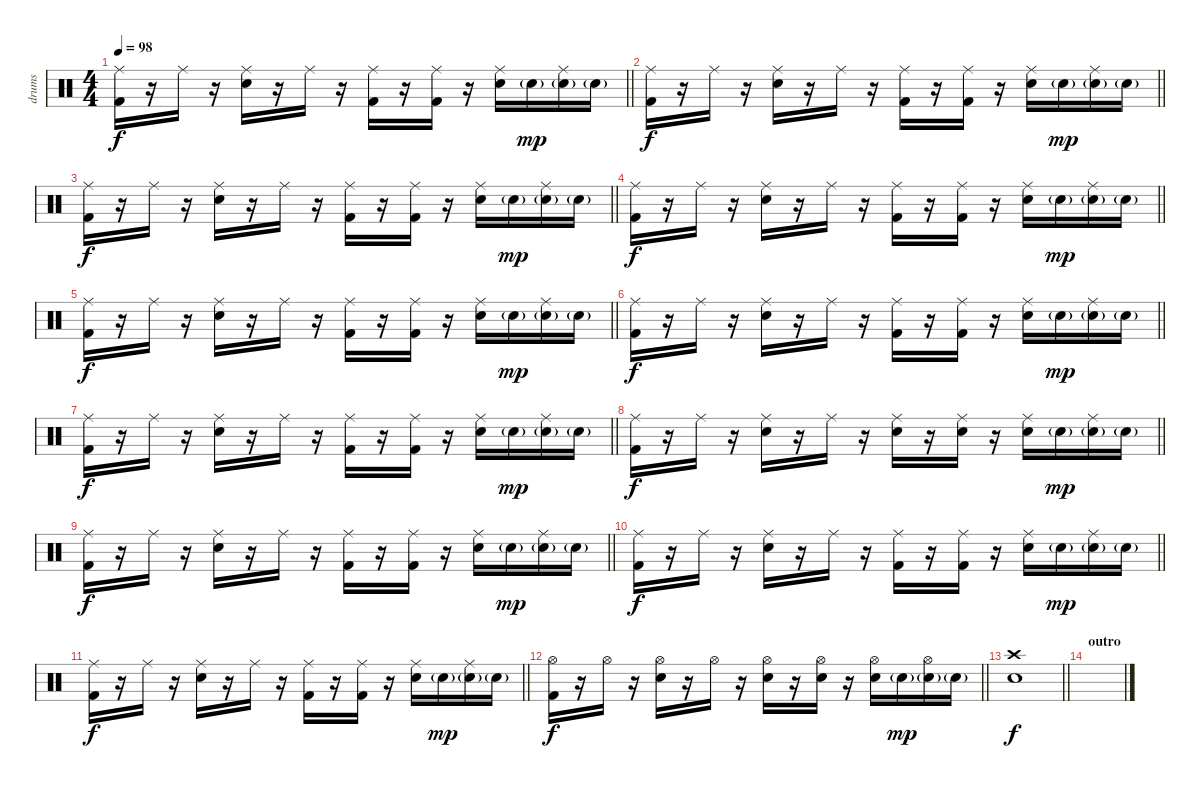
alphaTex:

\track ("drums" "drums") {instrument percussion}
\staff {score}
\articulation defaults
\ts (4 4)
\tempo 98
\clef neutral
\barLineRight lightlight
\ks c
("Kick (hit) 2" "Ride (middle)").16{dy f} r.16 "Ride (middle)".16 r.16 ("Electric Snare (hit)" "Ride (middle)").16 r.16 "Ride (middle)".16 r.16 ("Kick (hit) 2" "Ride (middle)").16 r.16 ("Kick (hit) 2" "Ride (middle)").16 r.16 ("Electric Snare (hit)" "Ride (middle)").16 "Electric Snare (hit)"{g}.16{dy mp} ("Electric Snare (hit)"{g} "Ride (middle)").16 "Electric Snare (hit)"{g}.16 |
\barLineRight lightlight
("Kick (hit) 2" "Ride (middle)").16{dy f} r.16 "Ride (middle)".16 r.16 ("Electric Snare (hit)" "Ride (middle)").16 r.16 "Ride (middle)".16 r.16 ("Kick (hit) 2" "Ride (middle)").16 r.16 ("Kick (hit) 2" "Ride (middle)").16 r.16 ("Electric Snare (hit)" "Ride (middle)").16 "Electric Snare (hit)"{g}.16{dy mp} ("Electric Snare (hit)"{g} "Ride (middle)").16 "Electric Snare (hit)"{g}.16 |
\barLineRight lightlight
("Kick (hit) 2" "Ride (middle)").16{dy f} r.16 "Ride (middle)".16 r.16 ("Electric Snare (hit)" "Ride (middle)").16 r.16 "Ride (middle)".16 r.16 ("Kick (hit) 2" "Ride (middle)").16 r.16 ("Kick (hit) 2" "Ride (middle)").16 r.16 ("Electric Snare (hit)" "Ride (middle)").16 "Electric Snare (hit)"{g}.16{dy mp} ("Electric Snare (hit)"{g} "Ride (middle)").16 "Electric Snare (hit)"{g}.16 |
\barLineRight lightlight
("Kick (hit) 2" "Ride (middle)").16{dy f} r.16 "Ride (middle)".16 r.16 ("Electric Snare (hit)" "Ride (middle)").16 r.16 "Ride (middle)".16 r.16 ("Kick (hit) 2" "Ride (middle)").16 r.16 ("Kick (hit) 2" "Ride (middle)").16 r.16 ("Electric Snare (hit)" "Ride (middle)").16 "Electric Snare (hit)"{g}.16{dy mp} ("Electric Snare (hit)"{g} "Ride (middle)").16 "Electric Snare (hit)"{g}.16 |
\barLineRight lightlight
("Kick (hit) 2" "Ride (middle)").16{dy f} r.16 "Ride (middle)".16 r.16 ("Electric Snare (hit)" "Ride (middle)").16 r.16 "Ride (middle)".16 r.16 ("Kick (hit) 2" "Ride (middle)").16 r.16 ("Kick (hit) 2" "Ride (middle)").16 r.16 ("Electric Snare (hit)" "Ride (middle)").16 "Electric Snare (hit)"{g}.16{dy mp} ("Electric Snare (hit)"{g} "Ride (middle)").16 "Electric Snare (hit)"{g}.16 |
\barLineRight lightlight
("Kick (hit) 2" "Ride (middle)").16{dy f} r.16 "Ride (middle)".16 r.16 ("Electric Snare (hit)" "Ride (middle)").16 r.16 "Ride (middle)".16 r.16 ("Kick (hit) 2" "Ride (middle)").16 r.16 ("Kick (hit) 2" "Ride (middle)").16 r.16 ("Electric Snare (hit)" "Ride (middle)").16 "Electric Snare (hit)"{g}.16{dy mp} ("Electric Snare (hit)"{g} "Ride (middle)").16 "Electric Snare (hit)"{g}.16 |
\barLineRight lightlight
("Kick (hit) 2" "Ride (middle)").16{dy f} r.16 "Ride (middle)".16 r.16 ("Electric Snare (hit)" "Ride (middle)").16 r.16 "Ride (middle)".16 r.16 ("Kick (hit) 2" "Ride (middle)").16 r.16 ("Kick (hit) 2" "Ride (middle)").16 r.16 ("Electric Snare (hit)" "Ride (middle)").16 "Electric Snare (hit)"{g}.16{dy mp} ("Electric Snare (hit)"{g} "Ride (middle)").16 "Electric Snare (hit)"{g}.16 |
\barLineRight lightlight
("Kick (hit) 2" "Ride (middle)").16{dy f} r.16 "Ride (middle)".16 r.16 ("Electric Snare (hit)" "Ride (middle)").16 r.16 "Ride (middle)".16 r.16 ("Electric Snare (hit)" "Ride (middle)").16 r.16 ("Electric Snare (hit)" "Ride (middle)").16 r.16 ("Electric Snare (hit)" "Ride (middle)").16 "Electric Snare (hit)"{g}.16{dy mp} ("Electric Snare (hit)"{g} "Ride (middle)").16 "Electric Snare (hit)"{g}.16 |
\barLineRight lightlight
("Kick (hit) 2" "Ride (middle)").16{dy f} r.16 "Ride (middle)".16 r.16 ("Electric Snare (hit)" "Ride (middle)").16 r.16 "Ride (middle)".16 r.16 ("Kick (hit) 2" "Ride (middle)").16 r.16 ("Kick (hit) 2" "Ride (middle)").16 r.16 ("Electric Snare (hit)" "Ride (middle)").16 "Electric Snare (hit)"{g}.16{dy mp} ("Electric Snare (hit)"{g} "Ride (middle)").16 "Electric Snare (hit)"{g}.16 |
\barLineRight lightlight
("Kick (hit) 2" "Ride (middle)").16{dy f} r.16 "Ride (middle)".16 r.16 ("Electric Snare (hit)" "Ride (middle)").16 r.16 "Ride (middle)".16 r.16 ("Kick (hit) 2" "Ride (middle)").16 r.16 ("Kick (hit) 2" "Ride (middle)").16 r.16 ("Electric Snare (hit)" "Ride (middle)").16 "Electric Snare (hit)"{g}.16{dy mp} ("Electric Snare (hit)"{g} "Ride (middle)").16 "Electric Snare (hit)"{g}.16 |
\barLineRight lightlight
("Kick (hit) 2" "Ride (middle)").16{dy f} r.16 "Ride (middle)".16 r.16 ("Electric Snare (hit)" "Ride (middle)").16 r.16 "Ride (middle)".16 r.16 ("Kick (hit) 2" "Ride (middle)").16 r.16 ("Kick (hit) 2" "Ride (middle)").16 r.16 ("Electric Snare (hit)" "Ride (middle)").16 "Electric Snare (hit)"{g}.16{dy mp} ("Electric Snare (hit)"{g} "Ride (middle)").16 "Electric Snare (hit)"{g}.16 |
\barLineRight lightlight
("Kick (hit) 2" "Hi-Hat (open)").16{dy f} r.16 "Hi-Hat (open)".16 r.16 ("Electric Snare (hit)" "Hi-Hat (open)").16 r.16 "Hi-Hat (open)".16 r.16 ("Electric Snare (hit)" "Hi-Hat (open)").16 r.16 ("Electric Snare (hit)" "Hi-Hat (open)").16 r.16 ("Electric Snare (hit)" "Hi-Hat (open)").16 "Electric Snare (hit)"{g}.16{dy mp} ("Electric Snare (hit)"{g} "Hi-Hat (open)").16 "Electric Snare (hit)"{g}.16 |
\barLineRight lightlight
("Electric Snare (hit)" "Crash high (hit)").1{dy f} |
\section ("" "outro")
